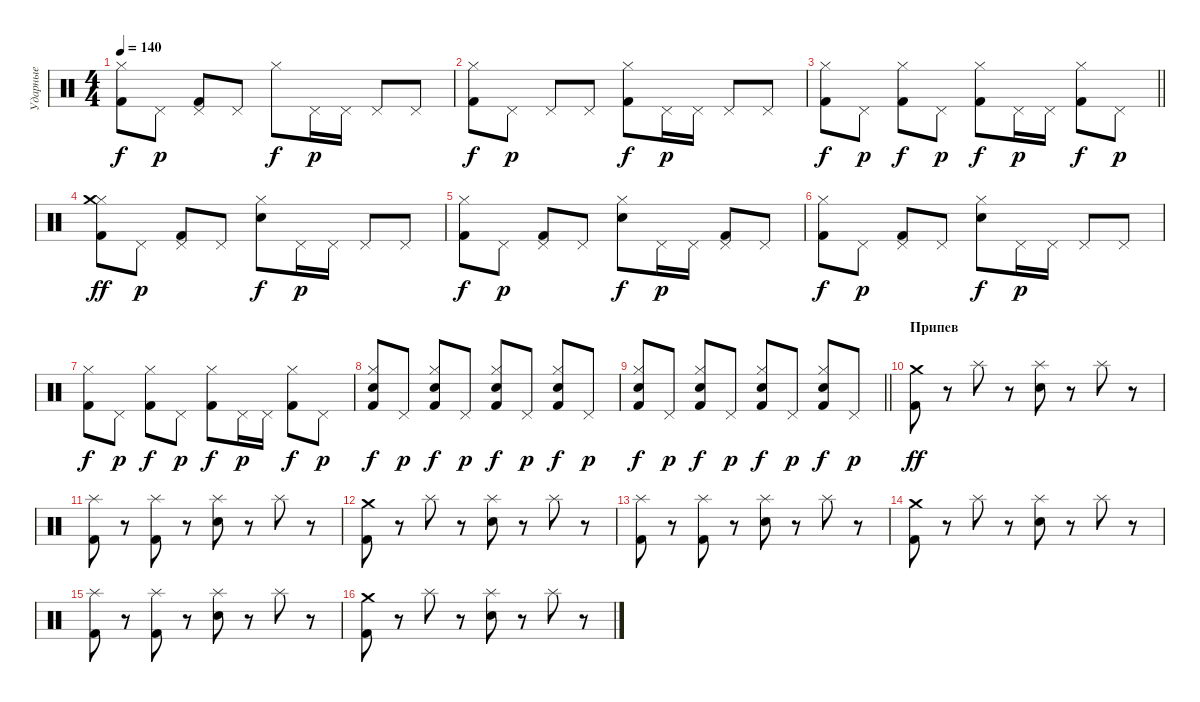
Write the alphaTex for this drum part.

\track ("Ударные" "Ударные") {instrument percussion}
\staff {score}
\articulation defaults
\ts (4 4)
\tempo 140
\clef neutral
\ks c
("Kick (hit) 2" "Hi-Hat (closed)").8{dy f} "Pedal Hi-Hat (hit)".8{dy p} ("Pedal Hi-Hat (hit)" "Kick (hit) 2").8 "Pedal Hi-Hat (hit)".8 "Hi-Hat (closed)".8{dy f} "Pedal Hi-Hat (hit)".16{dy p} "Pedal Hi-Hat (hit)".16 "Pedal Hi-Hat (hit)".8 "Pedal Hi-Hat (hit)".8 |
("Hi-Hat (closed)" "Kick (hit) 2").8{dy f} "Pedal Hi-Hat (hit)".8{dy p} "Pedal Hi-Hat (hit)".8 "Pedal Hi-Hat (hit)".8 ("Kick (hit) 2" "Hi-Hat (closed)").8{dy f} "Pedal Hi-Hat (hit)".16{dy p} "Pedal Hi-Hat (hit)".16 "Pedal Hi-Hat (hit)".8 "Pedal Hi-Hat (hit)".8 |
\barLineRight lightlight
("Kick (hit) 2" "Hi-Hat (closed)").8{dy f} "Pedal Hi-Hat (hit)".8{dy p} ("Kick (hit) 2" "Hi-Hat (closed)").8{dy f} "Pedal Hi-Hat (hit)".8{dy p} ("Kick (hit) 2" "Hi-Hat (closed)").8{dy f} "Pedal Hi-Hat (hit)".16{dy p} "Pedal Hi-Hat (hit)".16 ("Kick (hit) 2" "Hi-Hat (closed)").8{dy f} "Pedal Hi-Hat (hit)".8{dy p} |
\section ("" "")
("Hi-Hat (closed)" "Kick (hit) 2" "Crash medium (hit)").8{dy ff} "Pedal Hi-Hat (hit)".8{dy p} ("Pedal Hi-Hat (hit)" "Kick (hit) 2").8 "Pedal Hi-Hat (hit)".8 ("Snare (hit) 2" "Hi-Hat (closed)").8{dy f} "Pedal Hi-Hat (hit)".16{dy p} "Pedal Hi-Hat (hit)".16 "Pedal Hi-Hat (hit)".8 "Pedal Hi-Hat (hit)".8 |
("Kick (hit) 2" "Hi-Hat (closed)").8{dy f} "Pedal Hi-Hat (hit)".8{dy p} ("Pedal Hi-Hat (hit)" "Kick (hit) 2").8 "Pedal Hi-Hat (hit)".8 ("Snare (hit) 2" "Hi-Hat (closed)").8{dy f} "Pedal Hi-Hat (hit)".16{dy p} "Pedal Hi-Hat (hit)".16 ("Pedal Hi-Hat (hit)" "Kick (hit) 2").8 "Pedal Hi-Hat (hit)".8 |
("Hi-Hat (closed)" "Kick (hit) 2").8{dy f} "Pedal Hi-Hat (hit)".8{dy p} ("Pedal Hi-Hat (hit)" "Kick (hit) 2").8 "Pedal Hi-Hat (hit)".8 ("Snare (hit) 2" "Hi-Hat (closed)").8{dy f} "Pedal Hi-Hat (hit)".16{dy p} "Pedal Hi-Hat (hit)".16 "Pedal Hi-Hat (hit)".8 "Pedal Hi-Hat (hit)".8 |
("Hi-Hat (closed)" "Kick (hit) 2").8{dy f} "Pedal Hi-Hat (hit)".8{dy p} ("Hi-Hat (closed)" "Kick (hit) 2").8{dy f} "Pedal Hi-Hat (hit)".8{dy p} ("Hi-Hat (closed)" "Kick (hit) 2").8{dy f} "Pedal Hi-Hat (hit)".16{dy p} "Pedal Hi-Hat (hit)".16 ("Hi-Hat (closed)" "Kick (hit) 2").8{dy f} "Pedal Hi-Hat (hit)".8{dy p} |
("Snare (hit) 2" "Hi-Hat (closed)" "Kick (hit) 2").8{dy f} "Pedal Hi-Hat (hit)".8{dy p} ("Snare (hit) 2" "Hi-Hat (closed)" "Kick (hit) 2").8{dy f} "Pedal Hi-Hat (hit)".8{dy p} ("Snare (hit) 2" "Hi-Hat (closed)" "Kick (hit) 2").8{dy f} "Pedal Hi-Hat (hit)".8{dy p} ("Snare (hit) 2" "Hi-Hat (closed)" "Kick (hit) 2").8{dy f} "Pedal Hi-Hat (hit)".8{dy p} |
\barLineRight lightlight
("Snare (hit) 2" "Hi-Hat (closed)" "Kick (hit) 2").8{dy f} "Pedal Hi-Hat (hit)".8{dy p} ("Snare (hit) 2" "Hi-Hat (closed)" "Kick (hit) 2").8{dy f} "Pedal Hi-Hat (hit)".8{dy p} ("Snare (hit) 2" "Hi-Hat (closed)" "Kick (hit) 2").8{dy f} "Pedal Hi-Hat (hit)".8{dy p} ("Snare (hit) 2" "Hi-Hat (closed)" "Kick (hit) 2").8{dy f} "Pedal Hi-Hat (hit)".8{dy p} |
\section ("" "Припев")
("Kick (hit) 2" "Crash medium (hit)").8{dy ff} r.8 "Splash (hit)".8 r.8 ("Snare (hit) 2" "Splash (hit)").8 r.8 "Splash (hit)".8 r.8 |
("Kick (hit) 2" "Splash (hit)").8 r.8 ("Kick (hit) 2" "Splash (hit)").8 r.8 ("Snare (hit) 2" "Splash (hit)").8 r.8 "Splash (hit)".8 r.8 |
("Kick (hit) 2" "Crash medium (hit)").8 r.8 "Splash (hit)".8 r.8 ("Snare (hit) 2" "Splash (hit)").8 r.8 "Splash (hit)".8 r.8 |
("Kick (hit) 2" "Splash (hit)").8 r.8 ("Kick (hit) 2" "Splash (hit)").8 r.8 ("Snare (hit) 2" "Splash (hit)").8 r.8 "Splash (hit)".8 r.8 |
("Kick (hit) 2" "Crash medium (hit)").8 r.8 "Splash (hit)".8 r.8 ("Snare (hit) 2" "Splash (hit)").8 r.8 "Splash (hit)".8 r.8 |
("Kick (hit) 2" "Splash (hit)").8 r.8 ("Kick (hit) 2" "Splash (hit)").8 r.8 ("Snare (hit) 2" "Splash (hit)").8 r.8 "Splash (hit)".8 r.8 |
("Kick (hit) 2" "Crash medium (hit)").8 r.8 "Splash (hit)".8 r.8 ("Snare (hit) 2" "Splash (hit)").8 r.8 "Splash (hit)".8 r.8
